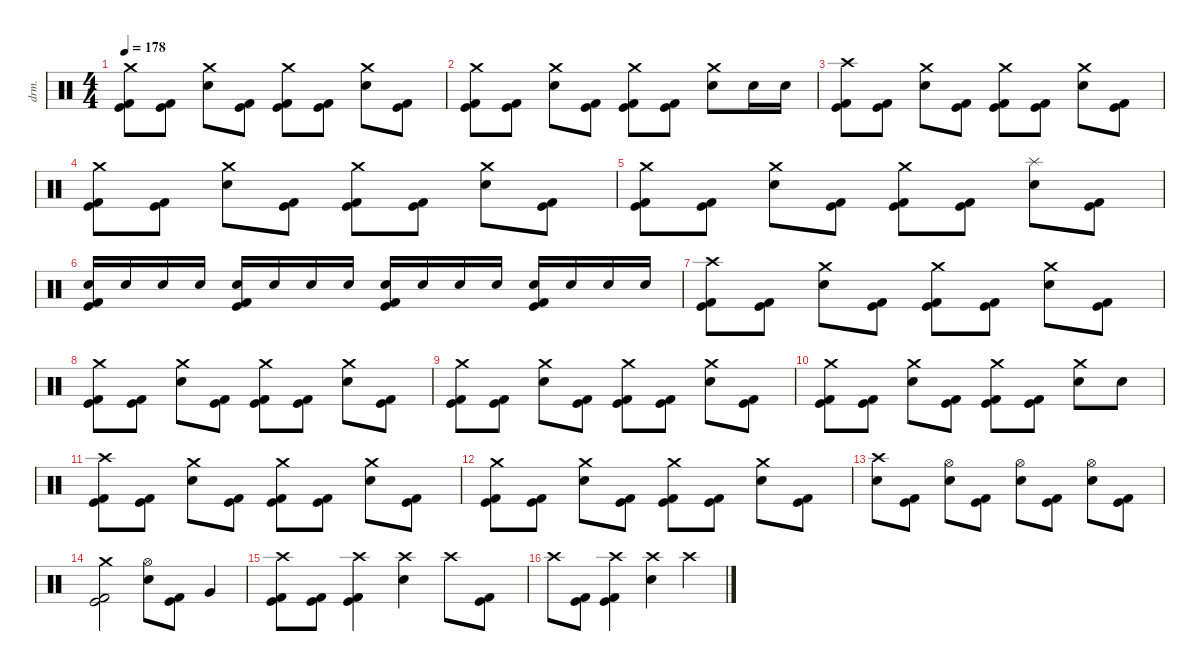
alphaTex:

\defaultSystemsLayout 4
\hideDynamics
\bracketExtendMode nobrackets
\otherSystemsTrackNameOrientation horizontal
\track ("Drums" "drm.") {instrument percussion}
\staff {score}
\articulation defaults
\ts (4 4)
\tempo 178
\clef neutral
\ks c
("Kick (hit)" "Kick (hit) 2" "Crash medium (hit)").8{dy ff beam Down} ("Kick (hit)" "Kick (hit) 2").8{beam Down} ("Snare (hit) 2" "Crash medium (hit)").8{beam Down} ("Kick (hit)" "Kick (hit) 2").8{beam Down} ("Kick (hit)" "Kick (hit) 2" "Crash medium (hit)").8{beam Down} ("Kick (hit)" "Kick (hit) 2").8{beam Down} ("Snare (hit) 2" "Crash medium (hit)").8{beam Down} ("Kick (hit)" "Kick (hit) 2").8{beam Down} |
("Kick (hit)" "Kick (hit) 2" "Crash medium (hit)").8{beam Down} ("Kick (hit)" "Kick (hit) 2").8{beam Down} ("Snare (hit) 2" "Crash medium (hit)").8{beam Down} ("Kick (hit)" "Kick (hit) 2").8{beam Down} ("Kick (hit)" "Kick (hit) 2" "Crash medium (hit)").8{beam Down} ("Kick (hit)" "Kick (hit) 2").8{beam Down} ("Snare (hit) 2" "Crash medium (hit)").8{beam Down} "Snare (hit) 2".16{dy f beam Down} "Snare (hit) 2".16{dy ff beam Down} |
("Kick (hit)" "Kick (hit) 2" "Crash high (hit)").8{beam Down} ("Kick (hit)" "Kick (hit) 2").8{beam Down} ("Snare (hit) 2" "Crash medium (hit)").8{beam Down} ("Kick (hit)" "Kick (hit) 2").8{beam Down} ("Kick (hit)" "Kick (hit) 2" "Crash medium (hit)").8{beam Down} ("Kick (hit)" "Kick (hit) 2").8{beam Down} ("Snare (hit) 2" "Crash medium (hit)").8{beam Down} ("Kick (hit)" "Kick (hit) 2").8{beam Down} |
("Kick (hit)" "Kick (hit) 2" "Crash medium (hit)").8{beam Down} ("Kick (hit)" "Kick (hit) 2").8{beam Down} ("Snare (hit) 2" "Crash medium (hit)").8{beam Down} ("Kick (hit)" "Kick (hit) 2").8{beam Down} ("Kick (hit)" "Kick (hit) 2" "Crash medium (hit)").8{beam Down} ("Kick (hit)" "Kick (hit) 2").8{beam Down} ("Snare (hit) 2" "Crash medium (hit)").8{beam Down} ("Kick (hit)" "Kick (hit) 2").8{beam Down} |
("Kick (hit)" "Kick (hit) 2" "Crash medium (hit)").8{beam Down} ("Kick (hit)" "Kick (hit) 2").8{beam Down} ("Snare (hit) 2" "Crash medium (hit)").8{beam Down} ("Kick (hit)" "Kick (hit) 2").8{beam Down} ("Kick (hit)" "Kick (hit) 2" "Crash medium (hit)").8{beam Down} ("Kick (hit)" "Kick (hit) 2").8{beam Down} ("Snare (hit) 2" "Splash (hit)").8{beam Down} ("Kick (hit)" "Kick (hit) 2").8{beam Down} |
("Kick (hit)" "Kick (hit) 2" "Snare (hit) 2").16{beam Up} "Snare (hit) 2".16{dy f beam Up} "Snare (hit) 2".16{beam Up} "Snare (hit) 2".16{beam Up} ("Kick (hit)" "Kick (hit) 2" "Snare (hit) 2").16{dy ff beam Up} "Snare (hit) 2".16{dy f beam Up} "Snare (hit) 2".16{beam Up} "Snare (hit) 2".16{beam Up} ("Kick (hit)" "Kick (hit) 2" "Snare (hit) 2").16{dy ff beam Up} "Snare (hit) 2".16{dy f beam Up} "Snare (hit) 2".16{beam Up} "Snare (hit) 2".16{beam Up} ("Kick (hit)" "Kick (hit) 2" "Snare (hit) 2").16{dy ff beam Up} "Snare (hit) 2".16{dy f beam Up} "Snare (hit) 2".16{beam Up} "Snare (hit) 2".16{beam Up} |
("Kick (hit)" "Kick (hit) 2" "Crash high (hit)").8{dy ff beam Down} ("Kick (hit)" "Kick (hit) 2").8{beam Down} ("Snare (hit) 2" "Crash medium (hit)").8{beam Down} ("Kick (hit)" "Kick (hit) 2").8{beam Down} ("Kick (hit)" "Kick (hit) 2" "Crash medium (hit)").8{beam Down} ("Kick (hit)" "Kick (hit) 2").8{beam Down} ("Snare (hit) 2" "Crash medium (hit)").8{beam Down} ("Kick (hit)" "Kick (hit) 2").8{beam Down} |
("Kick (hit)" "Kick (hit) 2" "Crash medium (hit)").8{beam Down} ("Kick (hit)" "Kick (hit) 2").8{beam Down} ("Snare (hit) 2" "Crash medium (hit)").8{beam Down} ("Kick (hit)" "Kick (hit) 2").8{beam Down} ("Kick (hit)" "Kick (hit) 2" "Crash medium (hit)").8{beam Down} ("Kick (hit)" "Kick (hit) 2").8{beam Down} ("Snare (hit) 2" "Crash medium (hit)").8{beam Down} ("Kick (hit)" "Kick (hit) 2").8{beam Down} |
("Kick (hit)" "Kick (hit) 2" "Crash medium (hit)").8{beam Down} ("Kick (hit)" "Kick (hit) 2").8{beam Down} ("Snare (hit) 2" "Crash medium (hit)").8{beam Down} ("Kick (hit)" "Kick (hit) 2").8{beam Down} ("Kick (hit)" "Kick (hit) 2" "Crash medium (hit)").8{beam Down} ("Kick (hit)" "Kick (hit) 2").8{beam Down} ("Snare (hit) 2" "Crash medium (hit)").8{beam Down} ("Kick (hit)" "Kick (hit) 2").8{beam Down} |
("Kick (hit)" "Kick (hit) 2" "Crash medium (hit)").8{beam Down} ("Kick (hit)" "Kick (hit) 2").8{beam Down} ("Snare (hit) 2" "Crash medium (hit)").8{beam Down} ("Kick (hit)" "Kick (hit) 2").8{beam Down} ("Kick (hit)" "Kick (hit) 2" "Crash medium (hit)").8{beam Down} ("Kick (hit)" "Kick (hit) 2").8{beam Down} ("Snare (hit) 2" "Crash medium (hit)").8{beam Down} "Snare (hit) 2".8{dy f beam Down} |
("Kick (hit)" "Kick (hit) 2" "Crash high (hit)").8{dy ff beam Down} ("Kick (hit)" "Kick (hit) 2").8{beam Down} ("Snare (hit) 2" "Crash medium (hit)").8{beam Down} ("Kick (hit)" "Kick (hit) 2").8{beam Down} ("Kick (hit)" "Kick (hit) 2" "Crash medium (hit)").8{beam Down} ("Kick (hit)" "Kick (hit) 2").8{beam Down} ("Snare (hit) 2" "Crash medium (hit)").8{beam Down} ("Kick (hit)" "Kick (hit) 2").8{beam Down} |
("Kick (hit)" "Kick (hit) 2" "Crash medium (hit)").8{beam Down} ("Kick (hit)" "Kick (hit) 2").8{beam Down} ("Snare (hit) 2" "Crash medium (hit)").8{beam Down} ("Kick (hit)" "Kick (hit) 2").8{beam Down} ("Kick (hit)" "Kick (hit) 2" "Crash medium (hit)").8{beam Down} ("Kick (hit)" "Kick (hit) 2").8{beam Down} ("Snare (hit) 2" "Crash medium (hit)").8{beam Down} ("Kick (hit)" "Kick (hit) 2").8{beam Down} |
("Snare (hit) 2" "Crash high (hit)").8{beam Down} ("Kick (hit)" "Kick (hit) 2").8{beam Down} ("Snare (hit) 2" "Hi-Hat (open)").8{beam Down} ("Kick (hit)" "Kick (hit) 2").8{beam Down} ("Snare (hit) 2" "Hi-Hat (open)").8{beam Down} ("Kick (hit)" "Kick (hit) 2").8{beam Down} ("Snare (hit) 2" "Hi-Hat (open)").8{beam Down} ("Kick (hit)" "Kick (hit) 2").8{beam Down} |
("Kick (hit)" "Kick (hit) 2" "Crash medium (hit)").2{beam Down} ("Snare (hit) 2" "Hi-Hat (open)").8{beam Down} ("Kick (hit)" "Kick (hit) 2").8{beam Down} "Very Low Tom (hit)".4{beam Up} |
("Kick (hit)" "Kick (hit) 2" "Crash high (hit)").8{beam Down} ("Kick (hit)" "Kick (hit) 2").8{beam Down} ("Kick (hit)" "Kick (hit) 2" "Crash high (hit)").4{beam Down} ("Snare (hit) 2" "Crash high (hit)").4{beam Down} "Crash high (hit)".8{beam Down} ("Kick (hit)" "Kick (hit) 2").8{beam Down} |
"Crash high (hit)".8{beam Down} ("Kick (hit)" "Kick (hit) 2").8{beam Down} ("Kick (hit)" "Kick (hit) 2" "Crash high (hit)").4{beam Down} ("Snare (hit) 2" "Crash high (hit)").4{beam Down} "Crash high (hit)".4{beam Down}
